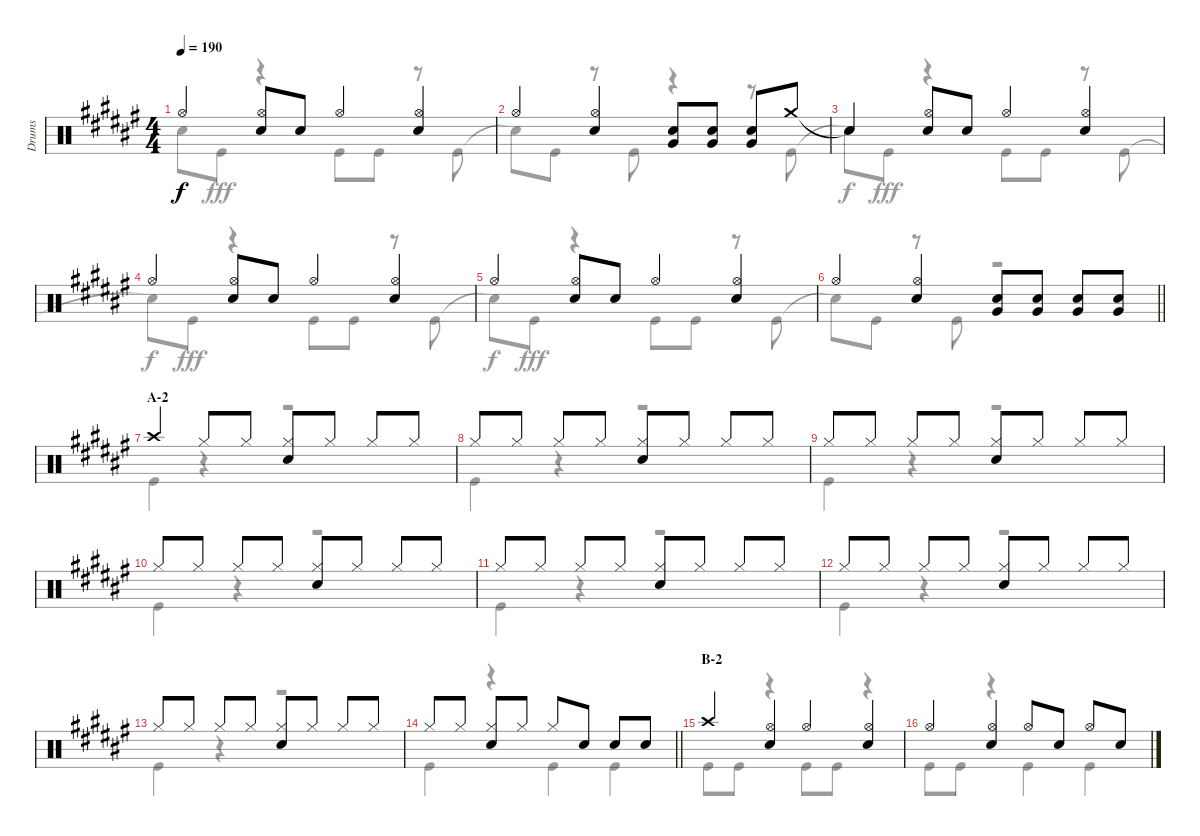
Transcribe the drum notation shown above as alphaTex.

\track ("Drums" "Drums") {instrument percussion}
\staff {score}
\articulation defaults
\voice
\ts (4 4)
\tempo 190
\clef neutral
\ks f# "Hi-Hat (open)".4{dy f}
("Hi-Hat (open)" "Snare (hit) 2").8 "Snare (hit) 2".8 "Hi-Hat (open)".4 ("Hi-Hat (open)" "Snare (hit) 2").4 |
"Hi-Hat (open)".4 ("Hi-Hat (open)" "Snare (hit) 2").4 ("Snare (hit) 2" "Very Low Tom (hit)").8 ("Snare (hit) 2" "Very Low Tom (hit)").8 ("Snare (hit) 2" "Very Low Tom (hit)").8 "Crash medium (hit)".8 |
"Snare (hit)"{t}.4 ("Hi-Hat (open)" "Snare (hit) 2").8 "Snare (hit) 2".8 "Hi-Hat (open)".4 ("Hi-Hat (open)" "Snare (hit) 2").4 |
"Hi-Hat (open)".4 ("Hi-Hat (open)" "Snare (hit) 2").8 "Snare (hit) 2".8 "Hi-Hat (open)".4 ("Hi-Hat (open)" "Snare (hit) 2").4 |
"Hi-Hat (open)".4 ("Hi-Hat (open)" "Snare (hit) 2").8 "Snare (hit) 2".8 "Hi-Hat (open)".4 ("Hi-Hat (open)" "Snare (hit) 2").4 |
\barLineRight lightlight "Hi-Hat (open)".4
("Hi-Hat (open)" "Snare (hit) 2").4 ("Snare (hit) 2" "Very Low Tom (hit)").8 ("Snare (hit) 2" "Very Low Tom (hit)").8 ("Snare (hit) 2" "Very Low Tom (hit)").8 ("Snare (hit) 2" "Very Low Tom (hit)").8 |
\section ("" "A-2")
"Crash high (hit)".4 "Hi-Hat (closed)".8 "Hi-Hat (closed)".8 ("Hi-Hat (closed)" "Snare (hit) 2").8 "Hi-Hat (closed)".8 "Hi-Hat (closed)".8 "Hi-Hat (closed)".8 |
"Hi-Hat (closed)".8 "Hi-Hat (closed)".8 "Hi-Hat (closed)".8 "Hi-Hat (closed)".8 ("Hi-Hat (closed)" "Snare (hit) 2").8 "Hi-Hat (closed)".8 "Hi-Hat (closed)".8 "Hi-Hat (closed)".8 |
"Hi-Hat (closed)".8 "Hi-Hat (closed)".8 "Hi-Hat (closed)".8 "Hi-Hat (closed)".8 ("Hi-Hat (closed)" "Snare (hit) 2").8 "Hi-Hat (closed)".8 "Hi-Hat (closed)".8 "Hi-Hat (closed)".8 |
"Hi-Hat (closed)".8 "Hi-Hat (closed)".8 "Hi-Hat (closed)".8 "Hi-Hat (closed)".8 ("Hi-Hat (closed)" "Snare (hit) 2").8 "Hi-Hat (closed)".8 "Hi-Hat (closed)".8 "Hi-Hat (closed)".8 |
"Hi-Hat (closed)".8 "Hi-Hat (closed)".8 "Hi-Hat (closed)".8 "Hi-Hat (closed)".8 ("Hi-Hat (closed)" "Snare (hit) 2").8 "Hi-Hat (closed)".8 "Hi-Hat (closed)".8 "Hi-Hat (closed)".8 |
"Hi-Hat (closed)".8 "Hi-Hat (closed)".8 "Hi-Hat (closed)".8 "Hi-Hat (closed)".8 ("Hi-Hat (closed)" "Snare (hit) 2").8 "Hi-Hat (closed)".8 "Hi-Hat (closed)".8 "Hi-Hat (closed)".8 |
"Hi-Hat (closed)".8 "Hi-Hat (closed)".8 "Hi-Hat (closed)".8 "Hi-Hat (closed)".8 ("Hi-Hat (closed)" "Snare (hit) 2").8 "Hi-Hat (closed)".8 "Hi-Hat (closed)".8 "Hi-Hat (closed)".8 |
\barLineRight lightlight "Hi-Hat (closed)".8 "Hi-Hat (closed)".8
("Hi-Hat (closed)" "Snare (hit) 2").8 "Hi-Hat (closed)".8 "Hi-Hat (closed)".8 "Snare (hit) 2".8 "Snare (hit) 2".8 "Snare (hit) 2".8 |
\section ("" "B-2")
"Crash high (hit)".4 ("Hi-Hat (open)" "Snare (hit) 2").4 "Hi-Hat (open)".4 ("Hi-Hat (open)" "Snare (hit) 2").4 |
"Hi-Hat (open)".4 ("Hi-Hat (open)" "Snare (hit) 2").4 "Hi-Hat (open)".8 "Snare (hit) 2".8 "Hi-Hat (open)".8 "Snare (hit) 2".8
\voice
\clef neutral
\ottava regular
\simile none
\ks f# "Snare (hit)"{t}.8{dy f} "Kick (hit)".8{dy fff}
r.4 "Kick (hit)".8 "Kick (hit)".8 r.8 "Kick (hit)".8 |
"Snare (hit)"{t}.8 "Kick (hit)".8 r.8 "Kick (hit)".8 r.4 r.8 "Kick (hit)".8 |
"Snare (hit)"{t}.8{dy f} "Kick (hit)".8{dy fff} r.4 "Kick (hit)".8 "Kick (hit)".8 r.8 "Kick (hit)".8 |
"Snare (hit)"{t}.8{dy f} "Kick (hit)".8{dy fff} r.4 "Kick (hit)".8 "Kick (hit)".8 r.8 "Kick (hit)".8 |
"Snare (hit)"{t}.8{dy f} "Kick (hit)".8{dy fff} r.4 "Kick (hit)".8 "Kick (hit)".8 r.8 "Kick (hit)".8 |
\barLineRight lightlight "Snare (hit)"{t}.8 "Kick (hit)".8
r.8 "Kick (hit)".8 r.2 |
"Kick (hit)".4 r.4 r.2 |
"Kick (hit)".4 r.4 r.2 |
"Kick (hit)".4 r.4 r.2 |
"Kick (hit)".4 r.4 r.2 |
"Kick (hit)".4 r.4 r.2 |
"Kick (hit)".4 r.4 r.2 |
"Kick (hit)".4 r.4 r.2 |
\barLineRight lightlight "Kick (hit)".4
r.4 "Kick (hit)".4 "Kick (hit)".4 |
"Kick (hit)".8 "Kick (hit)".8 r.4 "Kick (hit)".8 "Kick (hit)".8 r.4 |
"Kick (hit)".8 "Kick (hit)".8 r.4 "Kick (hit)".4 "Kick (hit)".4
